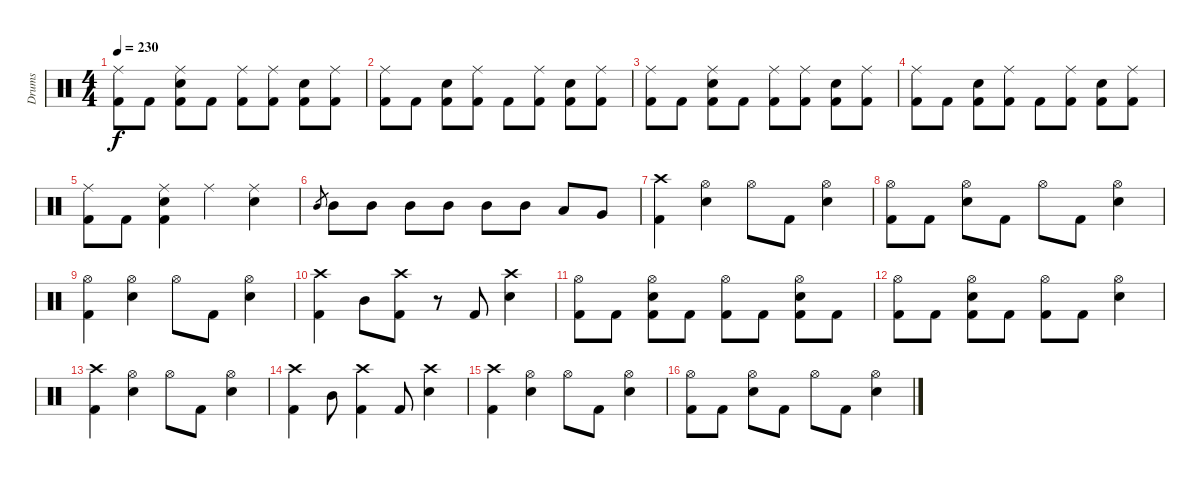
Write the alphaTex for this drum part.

\track ("Drums" "Drums") {instrument percussion}
\staff {score}
\articulation defaults
\ts (4 4)
\tempo 230
\clef neutral
\ks c
("Ride (middle)" "Kick (hit) 2").8{dy f} "Kick (hit) 2".8 ("Ride (middle)" "Electric Snare (hit)" "Kick (hit) 2").8 "Kick (hit) 2".8 ("Ride (middle)" "Kick (hit) 2").8 ("Ride (middle)" "Kick (hit) 2").8 ("Electric Snare (hit)" "Kick (hit) 2").8 ("Ride (middle)" "Kick (hit) 2").8 |
("Ride (middle)" "Kick (hit) 2").8 "Kick (hit) 2".8 ("Electric Snare (hit)" "Kick (hit) 2").8 ("Ride (middle)" "Kick (hit) 2").8 "Kick (hit) 2".8 ("Ride (middle)" "Kick (hit) 2").8 ("Electric Snare (hit)" "Kick (hit) 2").8 ("Ride (middle)" "Kick (hit) 2").8 |
("Ride (middle)" "Kick (hit) 2").8 "Kick (hit) 2".8 ("Ride (middle)" "Electric Snare (hit)" "Kick (hit) 2").8 "Kick (hit) 2".8 ("Ride (middle)" "Kick (hit) 2").8 ("Ride (middle)" "Kick (hit) 2").8 ("Electric Snare (hit)" "Kick (hit) 2").8 ("Ride (middle)" "Kick (hit) 2").8 |
("Ride (middle)" "Kick (hit) 2").8 "Kick (hit) 2".8 ("Electric Snare (hit)" "Kick (hit) 2").8 ("Ride (middle)" "Kick (hit) 2").8 "Kick (hit) 2".8 ("Ride (middle)" "Kick (hit) 2").8 ("Electric Snare (hit)" "Kick (hit) 2").8 ("Ride (middle)" "Kick (hit) 2").8 |
("Ride (middle)" "Kick (hit) 2").8 "Kick (hit) 2".8 ("Ride (middle)" "Electric Snare (hit)" "Kick (hit) 2").4 "Ride (middle)".4 ("Ride (middle)" "Electric Snare (hit)").4 |
"Mid Tom (hit)".8{gr} "Mid Tom (hit)".8 "Mid Tom (hit)".8 "Mid Tom (hit)".8 "Mid Tom (hit)".8 "Mid Tom (hit)".8 "Mid Tom (hit)".8 "Low Tom (hit)".8 "Very Low Tom (hit)".8 |
("Crash high (hit)" "Kick (hit) 2").4 ("Hi-Hat (open)" "Electric Snare (hit)").4 "Hi-Hat (open)".8 "Kick (hit) 2".8 ("Hi-Hat (open)" "Electric Snare (hit)").4 |
("Hi-Hat (open)" "Kick (hit) 2").8 "Kick (hit) 2".8 ("Hi-Hat (open)" "Electric Snare (hit)").8 "Kick (hit) 2".8 "Hi-Hat (open)".8 "Kick (hit) 2".8 ("Hi-Hat (open)" "Electric Snare (hit)").4 |
("Hi-Hat (open)" "Kick (hit) 2").4 ("Hi-Hat (open)" "Electric Snare (hit)").4 "Hi-Hat (open)".8 "Kick (hit) 2".8 ("Hi-Hat (open)" "Electric Snare (hit)").4 |
("Crash high (hit)" "Kick (hit) 2").4 "Mid Tom (hit)".8 ("Crash high (hit)" "Kick (hit) 2").8 r.8 "Kick (hit) 2".8 ("Crash high (hit)" "Electric Snare (hit)").4 |
("Hi-Hat (open)" "Kick (hit) 2").8 "Kick (hit) 2".8 ("Hi-Hat (open)" "Electric Snare (hit)" "Kick (hit) 2").8 "Kick (hit) 2".8 ("Hi-Hat (open)" "Kick (hit) 2").8 "Kick (hit) 2".8 ("Hi-Hat (open)" "Electric Snare (hit)" "Kick (hit) 2").8 "Kick (hit) 2".8 |
("Hi-Hat (open)" "Kick (hit) 2").8 "Kick (hit) 2".8 ("Hi-Hat (open)" "Electric Snare (hit)" "Kick (hit) 2").8 "Kick (hit) 2".8 ("Hi-Hat (open)" "Kick (hit) 2").8 "Kick (hit) 2".8 ("Hi-Hat (open)" "Electric Snare (hit)").4 |
("Crash high (hit)" "Kick (hit) 2").4 ("Hi-Hat (open)" "Electric Snare (hit)").4 "Hi-Hat (open)".8 "Kick (hit) 2".8 ("Hi-Hat (open)" "Electric Snare (hit)").4 |
("Crash high (hit)" "Kick (hit) 2").4 "Mid Tom (hit)".8 ("Crash high (hit)" "Kick (hit) 2").4 "Kick (hit) 2".8 ("Crash high (hit)" "Electric Snare (hit)").4 |
("Crash high (hit)" "Kick (hit) 2").4 ("Hi-Hat (open)" "Electric Snare (hit)").4 "Hi-Hat (open)".8 "Kick (hit) 2".8 ("Hi-Hat (open)" "Electric Snare (hit)").4 |
("Hi-Hat (open)" "Kick (hit) 2").8 "Kick (hit) 2".8 ("Hi-Hat (open)" "Electric Snare (hit)").8 "Kick (hit) 2".8 "Hi-Hat (open)".8 "Kick (hit) 2".8 ("Hi-Hat (open)" "Electric Snare (hit)").4
